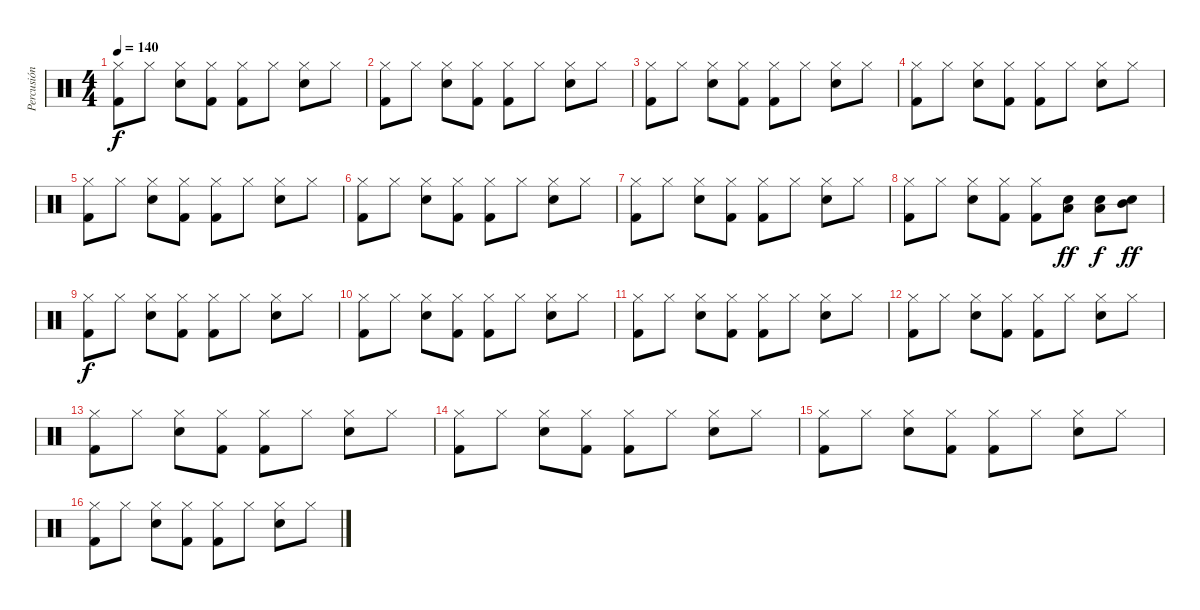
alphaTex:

\track ("Percusión" "Percusión") {instrument percussion}
\staff {score}
\articulation defaults
\ts (4 4)
\tempo 140
\clef neutral
\ks c
("Hi-Hat (closed)" "Kick (hit) 2").8{dy f} "Hi-Hat (closed)".8 ("Hi-Hat (closed)" "Snare (hit) 2").8 ("Hi-Hat (closed)" "Kick (hit) 2").8 ("Hi-Hat (closed)" "Kick (hit) 2").8 "Hi-Hat (closed)".8 ("Hi-Hat (closed)" "Snare (hit) 2").8 "Hi-Hat (closed)".8 |
("Hi-Hat (closed)" "Kick (hit) 2").8 "Hi-Hat (closed)".8 ("Hi-Hat (closed)" "Snare (hit) 2").8 ("Hi-Hat (closed)" "Kick (hit) 2").8 ("Hi-Hat (closed)" "Kick (hit) 2").8 "Hi-Hat (closed)".8 ("Hi-Hat (closed)" "Snare (hit) 2").8 "Hi-Hat (closed)".8 |
("Hi-Hat (closed)" "Kick (hit) 2").8 "Hi-Hat (closed)".8 ("Hi-Hat (closed)" "Snare (hit) 2").8 ("Hi-Hat (closed)" "Kick (hit) 2").8 ("Hi-Hat (closed)" "Kick (hit) 2").8 "Hi-Hat (closed)".8 ("Hi-Hat (closed)" "Snare (hit) 2").8 "Hi-Hat (closed)".8 |
("Hi-Hat (closed)" "Kick (hit) 2").8 "Hi-Hat (closed)".8 ("Hi-Hat (closed)" "Snare (hit) 2").8 ("Hi-Hat (closed)" "Kick (hit) 2").8 ("Hi-Hat (closed)" "Kick (hit) 2").8 "Hi-Hat (closed)".8 ("Hi-Hat (closed)" "Snare (hit) 2").8 "Hi-Hat (closed)".8 |
("Hi-Hat (closed)" "Kick (hit) 2").8 "Hi-Hat (closed)".8 ("Hi-Hat (closed)" "Snare (hit) 2").8 ("Hi-Hat (closed)" "Kick (hit) 2").8 ("Hi-Hat (closed)" "Kick (hit) 2").8 "Hi-Hat (closed)".8 ("Hi-Hat (closed)" "Snare (hit) 2").8 "Hi-Hat (closed)".8 |
("Hi-Hat (closed)" "Kick (hit) 2").8 "Hi-Hat (closed)".8 ("Hi-Hat (closed)" "Snare (hit) 2").8 ("Hi-Hat (closed)" "Kick (hit) 2").8 ("Hi-Hat (closed)" "Kick (hit) 2").8 "Hi-Hat (closed)".8 ("Hi-Hat (closed)" "Snare (hit) 2").8 "Hi-Hat (closed)".8 |
("Hi-Hat (closed)" "Kick (hit) 2").8 "Hi-Hat (closed)".8 ("Hi-Hat (closed)" "Snare (hit) 2").8 ("Hi-Hat (closed)" "Kick (hit) 2").8 ("Hi-Hat (closed)" "Kick (hit) 2").8 "Hi-Hat (closed)".8 ("Hi-Hat (closed)" "Snare (hit) 2").8 "Hi-Hat (closed)".8 |
("Hi-Hat (closed)" "Kick (hit) 2").8 "Hi-Hat (closed)".8 ("Hi-Hat (closed)" "Snare (hit) 2").8 ("Hi-Hat (closed)" "Kick (hit) 2").8 ("Hi-Hat (closed)" "Kick (hit) 2").8 ("Low Floor Tom (hit)" "Snare (hit) 2").8{dy ff} ("Low Tom (hit)" "Snare (hit) 2").8{dy f} ("Mid Tom (hit)" "Snare (hit) 2").8{dy ff} |
("Hi-Hat (closed)" "Kick (hit) 2").8{dy f} "Hi-Hat (closed)".8 ("Hi-Hat (closed)" "Snare (hit) 2").8 ("Hi-Hat (closed)" "Kick (hit) 2").8 ("Hi-Hat (closed)" "Kick (hit) 2").8 "Hi-Hat (closed)".8 ("Hi-Hat (closed)" "Snare (hit) 2").8 "Hi-Hat (closed)".8 |
("Hi-Hat (closed)" "Kick (hit) 2").8 "Hi-Hat (closed)".8 ("Hi-Hat (closed)" "Snare (hit) 2").8 ("Hi-Hat (closed)" "Kick (hit) 2").8 ("Hi-Hat (closed)" "Kick (hit) 2").8 "Hi-Hat (closed)".8 ("Hi-Hat (closed)" "Snare (hit) 2").8 "Hi-Hat (closed)".8 |
("Hi-Hat (closed)" "Kick (hit) 2").8 "Hi-Hat (closed)".8 ("Hi-Hat (closed)" "Snare (hit) 2").8 ("Hi-Hat (closed)" "Kick (hit) 2").8 ("Hi-Hat (closed)" "Kick (hit) 2").8 "Hi-Hat (closed)".8 ("Hi-Hat (closed)" "Snare (hit) 2").8 "Hi-Hat (closed)".8 |
("Hi-Hat (closed)" "Kick (hit) 2").8 "Hi-Hat (closed)".8 ("Hi-Hat (closed)" "Snare (hit) 2").8 ("Hi-Hat (closed)" "Kick (hit) 2").8 ("Hi-Hat (closed)" "Kick (hit) 2").8 "Hi-Hat (closed)".8 ("Hi-Hat (closed)" "Snare (hit) 2").8 "Hi-Hat (closed)".8 |
("Hi-Hat (closed)" "Kick (hit) 2").8 "Hi-Hat (closed)".8 ("Hi-Hat (closed)" "Snare (hit) 2").8 ("Hi-Hat (closed)" "Kick (hit) 2").8 ("Hi-Hat (closed)" "Kick (hit) 2").8 "Hi-Hat (closed)".8 ("Hi-Hat (closed)" "Snare (hit) 2").8 "Hi-Hat (closed)".8 |
("Hi-Hat (closed)" "Kick (hit) 2").8 "Hi-Hat (closed)".8 ("Hi-Hat (closed)" "Snare (hit) 2").8 ("Hi-Hat (closed)" "Kick (hit) 2").8 ("Hi-Hat (closed)" "Kick (hit) 2").8 "Hi-Hat (closed)".8 ("Hi-Hat (closed)" "Snare (hit) 2").8 "Hi-Hat (closed)".8 |
("Hi-Hat (closed)" "Kick (hit) 2").8 "Hi-Hat (closed)".8 ("Hi-Hat (closed)" "Snare (hit) 2").8 ("Hi-Hat (closed)" "Kick (hit) 2").8 ("Hi-Hat (closed)" "Kick (hit) 2").8 "Hi-Hat (closed)".8 ("Hi-Hat (closed)" "Snare (hit) 2").8 "Hi-Hat (closed)".8 |
("Hi-Hat (closed)" "Kick (hit) 2").8 "Hi-Hat (closed)".8 ("Hi-Hat (closed)" "Snare (hit) 2").8 ("Hi-Hat (closed)" "Kick (hit) 2").8 ("Hi-Hat (closed)" "Kick (hit) 2").8 "Hi-Hat (closed)".8 ("Hi-Hat (closed)" "Snare (hit) 2").8 "Hi-Hat (closed)".8
